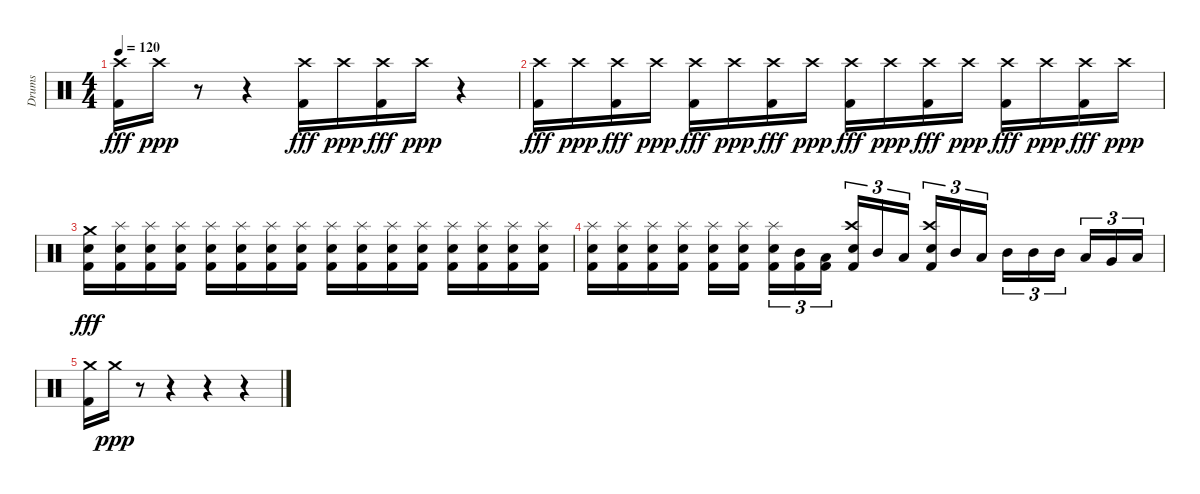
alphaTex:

\track ("Drums" "Drums") {instrument percussion}
\staff {score}
\articulation defaults
\ts (4 4)
\tempo 120
\clef neutral
\ks c
("Kick (hit) 2" "Crash high (hit)").16{dy fff} "Crash high (hit)".16{dy ppp} r.8 r.4 ("Kick (hit) 2" "Crash high (hit)").16{dy fff} "Crash high (hit)".16{dy ppp} ("Kick (hit) 2" "Crash high (hit)").16{dy fff} "Crash high (hit)".16{dy ppp} r.4 |
("Kick (hit) 2" "Crash high (hit)").16{dy fff} "Crash high (hit)".16{dy ppp} ("Kick (hit) 2" "Crash high (hit)").16{dy fff} "Crash high (hit)".16{dy ppp} ("Kick (hit) 2" "Crash high (hit)").16{dy fff} "Crash high (hit)".16{dy ppp} ("Kick (hit) 2" "Crash high (hit)").16{dy fff} "Crash high (hit)".16{dy ppp} ("Kick (hit) 2" "Crash high (hit)").16{dy fff} "Crash high (hit)".16{dy ppp} ("Kick (hit) 2" "Crash high (hit)").16{dy fff} "Crash high (hit)".16{dy ppp} ("Kick (hit) 2" "Crash high (hit)").16{dy fff} "Crash high (hit)".16{dy ppp} ("Kick (hit) 2" "Crash high (hit)").16{dy fff} "Crash high (hit)".16{dy ppp} |
("Kick (hit) 2" "Electric Snare (hit)" "Crash medium (hit)").16{dy fff} ("Kick (hit) 2" "Electric Snare (hit)" "Splash (hit)").16 ("Kick (hit) 2" "Electric Snare (hit)" "Splash (hit)").16 ("Kick (hit) 2" "Electric Snare (hit)" "Splash (hit)").16 ("Kick (hit) 2" "Electric Snare (hit)" "Splash (hit)").16 ("Kick (hit) 2" "Electric Snare (hit)" "Splash (hit)").16 ("Kick (hit) 2" "Electric Snare (hit)" "Splash (hit)").16 ("Kick (hit) 2" "Electric Snare (hit)" "Splash (hit)").16 ("Kick (hit) 2" "Electric Snare (hit)" "Splash (hit)").16 ("Kick (hit) 2" "Electric Snare (hit)" "Splash (hit)").16 ("Kick (hit) 2" "Electric Snare (hit)" "Splash (hit)").16 ("Kick (hit) 2" "Electric Snare (hit)" "Splash (hit)").16 ("Kick (hit) 2" "Electric Snare (hit)" "Splash (hit)").16 ("Kick (hit) 2" "Electric Snare (hit)" "Splash (hit)").16 ("Kick (hit) 2" "Electric Snare (hit)" "Splash (hit)").16 ("Kick (hit) 2" "Electric Snare (hit)" "Splash (hit)").16 |
("Kick (hit) 2" "Electric Snare (hit)" "Splash (hit)").16 ("Kick (hit) 2" "Electric Snare (hit)" "Splash (hit)").16 ("Kick (hit) 2" "Electric Snare (hit)" "Splash (hit)").16 ("Kick (hit) 2" "Electric Snare (hit)" "Splash (hit)").16 ("Kick (hit) 2" "Electric Snare (hit)" "Splash (hit)").16 ("Kick (hit) 2" "Electric Snare (hit)" "Splash (hit)").16{beam splitsecondary} ("Kick (hit) 2" "Electric Snare (hit)" "Splash (hit)").16{tu (3 2)} ("Kick (hit) 2" "Mid Tom (hit)").16{tu (3 2)} ("Kick (hit) 2" "Low Tom (hit)").16{tu (3 2)} ("Kick (hit) 2" "Electric Snare (hit)" "Crash high (hit)").16{tu (3 2)} "Mid Tom (hit)".16{tu (3 2)} "Low Tom (hit)".16{tu (3 2) beam splitsecondary} ("Kick (hit) 2" "Electric Snare (hit)" "Crash high (hit)").16{tu (3 2)} "Mid Tom (hit)".16{tu (3 2)} "Low Tom (hit)".16{tu (3 2)} "Mid Tom (hit)".16{tu (3 2)} "Mid Tom (hit)".16{tu (3 2)} "Mid Tom (hit)".16{tu (3 2) beam splitsecondary} "Low Tom (hit)".16{tu (3 2)} "Very Low Tom (hit)".16{tu (3 2)} "Low Floor Tom (hit)".16{tu (3 2)} |
("Kick (hit) 2" "Crash medium (hit)").16 "Crash medium (hit)".16{dy ppp} r.8 r.4 r.4 r.4
